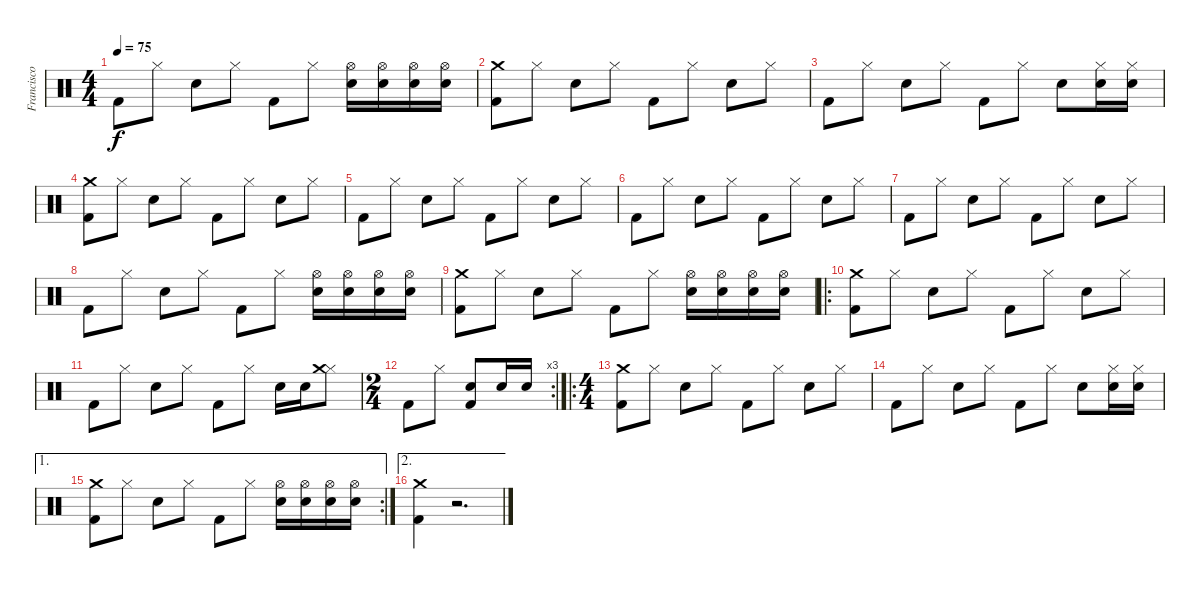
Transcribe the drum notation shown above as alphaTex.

\track ("Francisco (batería)" "Francisco ") {instrument percussion}
\staff {score}
\articulation defaults
\ts (4 4)
\tempo 75
\clef neutral
\ks c "Kick (hit) 2".8{dy f} "Hi-Hat (closed)".8 "Snare (hit) 2".8 "Hi-Hat (closed)".8 "Kick (hit) 2".8 "Hi-Hat (closed)".8
("Hi-Hat (open)" "Snare (hit) 2").16 ("Hi-Hat (open)" "Snare (hit) 2").16 ("Hi-Hat (open)" "Snare (hit) 2").16 ("Hi-Hat (open)" "Snare (hit) 2").16 |
("Crash medium (hit)" "Kick (hit) 2").8 "Hi-Hat (closed)".8 "Snare (hit) 2".8 "Hi-Hat (closed)".8 "Kick (hit) 2".8 "Hi-Hat (closed)".8 "Snare (hit) 2".8 "Hi-Hat (closed)".8 |
"Kick (hit) 2".8 "Hi-Hat (closed)".8 "Snare (hit) 2".8 "Hi-Hat (closed)".8 "Kick (hit) 2".8 "Hi-Hat (closed)".8 "Snare (hit) 2".8 ("Hi-Hat (closed)" "Snare (hit) 2").16 ("Hi-Hat (closed)" "Snare (hit) 2").16 |
("Crash medium (hit)" "Kick (hit) 2").8 "Hi-Hat (closed)".8 "Snare (hit) 2".8 "Hi-Hat (closed)".8 "Kick (hit) 2".8 "Hi-Hat (closed)".8 "Snare (hit) 2".8 "Hi-Hat (closed)".8 |
"Kick (hit) 2".8 "Hi-Hat (closed)".8 "Snare (hit) 2".8 "Hi-Hat (closed)".8 "Kick (hit) 2".8 "Hi-Hat (closed)".8 "Snare (hit) 2".8 "Hi-Hat (closed)".8 |
"Kick (hit) 2".8 "Hi-Hat (closed)".8 "Snare (hit) 2".8 "Hi-Hat (closed)".8 "Kick (hit) 2".8 "Hi-Hat (closed)".8 "Snare (hit) 2".8 "Hi-Hat (closed)".8 |
"Kick (hit) 2".8 "Hi-Hat (closed)".8 "Snare (hit) 2".8 "Hi-Hat (closed)".8 "Kick (hit) 2".8 "Hi-Hat (closed)".8 "Snare (hit) 2".8 "Hi-Hat (closed)".8 |
"Kick (hit) 2".8 "Hi-Hat (closed)".8 "Snare (hit) 2".8 "Hi-Hat (closed)".8 "Kick (hit) 2".8 "Hi-Hat (closed)".8 ("Hi-Hat (open)" "Snare (hit) 2").16 ("Hi-Hat (open)" "Snare (hit) 2").16 ("Hi-Hat (open)" "Snare (hit) 2").16 ("Hi-Hat (open)" "Snare (hit) 2").16 |
("Crash medium (hit)" "Kick (hit) 2").8 "Hi-Hat (closed)".8 "Snare (hit) 2".8 "Hi-Hat (closed)".8 "Kick (hit) 2".8 "Hi-Hat (closed)".8 ("Hi-Hat (open)" "Snare (hit) 2").16 ("Hi-Hat (open)" "Snare (hit) 2").16 ("Hi-Hat (open)" "Snare (hit) 2").16 ("Hi-Hat (open)" "Snare (hit) 2").16 |
\ro
("Crash medium (hit)" "Kick (hit) 2").8 "Hi-Hat (closed)".8 "Snare (hit) 2".8 "Hi-Hat (closed)".8 "Kick (hit) 2".8 "Hi-Hat (closed)".8 "Snare (hit) 2".8 "Hi-Hat (closed)".8 |
"Kick (hit) 2".8 "Hi-Hat (closed)".8 "Snare (hit) 2".8 "Hi-Hat (closed)".8 "Kick (hit) 2".8 "Hi-Hat (closed)".8 "Snare (hit) 2".16 "Snare (hit) 2".16 ("Hi-Hat (closed)" "Crash medium (hit)").8 |
\rc 3
\ts (2 4)
"Kick (hit) 2".8 "Hi-Hat (closed)".8 ("Kick (hit) 2" "Snare (hit) 2").8 "Snare (hit) 2".16 "Snare (hit) 2".16 |
\ro
\ts (4 4)
("Crash medium (hit)" "Kick (hit) 2").8 "Hi-Hat (closed)".8 "Snare (hit) 2".8 "Hi-Hat (closed)".8 "Kick (hit) 2".8 "Hi-Hat (closed)".8 "Snare (hit) 2".8 "Hi-Hat (closed)".8 |
"Kick (hit) 2".8 "Hi-Hat (closed)".8 "Snare (hit) 2".8 "Hi-Hat (closed)".8 "Kick (hit) 2".8 "Hi-Hat (closed)".8 "Snare (hit) 2".8 ("Hi-Hat (closed)" "Snare (hit) 2").16 ("Hi-Hat (closed)" "Snare (hit) 2").16 |
\ae 1
\rc 2
("Crash medium (hit)" "Kick (hit) 2").8 "Hi-Hat (closed)".8 "Snare (hit) 2".8 "Hi-Hat (closed)".8 "Kick (hit) 2".8 "Hi-Hat (closed)".8 ("Hi-Hat (open)" "Snare (hit) 2").16 ("Hi-Hat (open)" "Snare (hit) 2").16 ("Hi-Hat (open)" "Snare (hit) 2").16 ("Hi-Hat (open)" "Snare (hit) 2").16 |
\ae 2
("Crash medium (hit)" "Kick (hit) 2").4 r.2{d}
